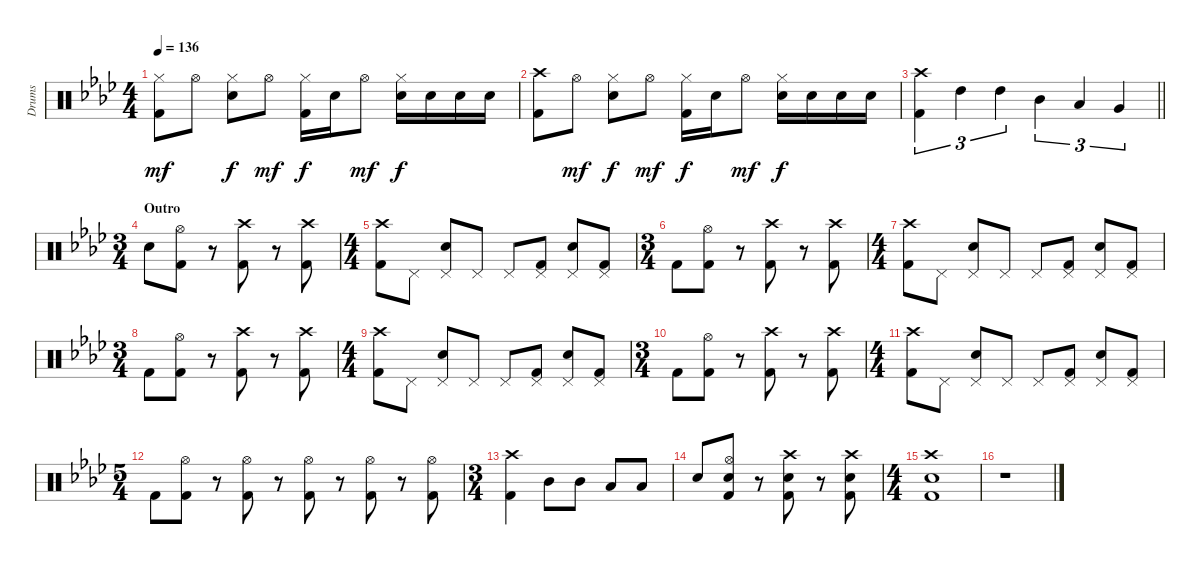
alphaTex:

\track ("Drums" "Drums") {instrument percussion}
\staff {score}
\articulation defaults
\ts (4 4)
\tempo 136
\clef neutral
\ks ab
("Hi-Hat (closed)" "Kick (hit) 2").8{dy mf} "Hi-Hat (open)".8 ("Hi-Hat (closed)" "Electric Snare (hit)").8{dy f} "Hi-Hat (open)".8{dy mf} ("Hi-Hat (closed)" "Kick (hit) 2").16{dy f} "Electric Snare (hit)".16 "Hi-Hat (open)".8{dy mf} ("Hi-Hat (closed)" "Electric Snare (hit)").16{dy f} "Electric Snare (hit)".16 "Electric Snare (hit)".16 "Electric Snare (hit)".16 |
("Crash high (hit)" "Kick (hit) 2").8 "Hi-Hat (open)".8{dy mf} ("Hi-Hat (closed)" "Electric Snare (hit)").8{dy f} "Hi-Hat (open)".8{dy mf} ("Hi-Hat (closed)" "Kick (hit) 2").16{dy f} "Electric Snare (hit)".16 "Hi-Hat (open)".8{dy mf} ("Hi-Hat (closed)" "Electric Snare (hit)").16{dy f} "Electric Snare (hit)".16 "Electric Snare (hit)".16 "Electric Snare (hit)".16 |
\barLineRight lightlight
("Crash high (hit)" "Kick (hit) 2").4{tu (3 2)} "High Tom (hit)".4{tu (3 2)} "High Tom (hit)".4{tu (3 2)} "Mid Tom (hit)".4{tu (3 2)} "Low Tom (hit)".4{tu (3 2)} "Very Low Tom (hit)".4{tu (3 2)} |
\ts (3 4)
\section ("" "Outro")
"Electric Snare (hit)".8 ("Hi-Hat (open)" "Kick (hit) 2").8 r.8 ("Crash high (hit)" "Kick (hit) 2").8 r.8 ("Crash high (hit)" "Kick (hit) 2").8 |
\ts (4 4)
("Crash high (hit)" "Kick (hit) 2").8 "Pedal Hi-Hat (hit)".8 ("Pedal Hi-Hat (hit)" "Electric Snare (hit)").8 "Pedal Hi-Hat (hit)".8 "Pedal Hi-Hat (hit)".8 ("Pedal Hi-Hat (hit)" "Kick (hit) 2").8 ("Pedal Hi-Hat (hit)" "Electric Snare (hit)").8 ("Pedal Hi-Hat (hit)" "Kick (hit) 2").8 |
\ts (3 4)
"Kick (hit) 2".8 ("Hi-Hat (open)" "Kick (hit) 2").8 r.8 ("Crash high (hit)" "Kick (hit) 2").8 r.8 ("Crash high (hit)" "Kick (hit) 2").8 |
\ts (4 4)
("Crash high (hit)" "Kick (hit) 2").8 "Pedal Hi-Hat (hit)".8 ("Pedal Hi-Hat (hit)" "Electric Snare (hit)").8 "Pedal Hi-Hat (hit)".8 "Pedal Hi-Hat (hit)".8 ("Pedal Hi-Hat (hit)" "Kick (hit) 2").8 ("Pedal Hi-Hat (hit)" "Electric Snare (hit)").8 ("Pedal Hi-Hat (hit)" "Kick (hit) 2").8 |
\ts (3 4)
"Kick (hit) 2".8 ("Hi-Hat (open)" "Kick (hit) 2").8 r.8 ("Crash high (hit)" "Kick (hit) 2").8 r.8 ("Crash high (hit)" "Kick (hit) 2").8 |
\ts (4 4)
("Crash high (hit)" "Kick (hit) 2").8 "Pedal Hi-Hat (hit)".8 ("Pedal Hi-Hat (hit)" "Electric Snare (hit)").8 "Pedal Hi-Hat (hit)".8 "Pedal Hi-Hat (hit)".8 ("Pedal Hi-Hat (hit)" "Kick (hit) 2").8 ("Pedal Hi-Hat (hit)" "Electric Snare (hit)").8 ("Pedal Hi-Hat (hit)" "Kick (hit) 2").8 |
\ts (3 4)
"Kick (hit) 2".8 ("Hi-Hat (open)" "Kick (hit) 2").8 r.8 ("Crash high (hit)" "Kick (hit) 2").8 r.8 ("Crash high (hit)" "Kick (hit) 2").8 |
\ts (4 4)
("Crash high (hit)" "Kick (hit) 2").8 "Pedal Hi-Hat (hit)".8 ("Pedal Hi-Hat (hit)" "Electric Snare (hit)").8 "Pedal Hi-Hat (hit)".8 "Pedal Hi-Hat (hit)".8 ("Pedal Hi-Hat (hit)" "Kick (hit) 2").8 ("Pedal Hi-Hat (hit)" "Electric Snare (hit)").8 ("Pedal Hi-Hat (hit)" "Kick (hit) 2").8 |
\ts (5 4)
"Kick (hit) 2".8 ("Hi-Hat (open)" "Kick (hit) 2").8 r.8 ("Hi-Hat (open)" "Kick (hit) 2").8 r.8 ("Hi-Hat (open)" "Kick (hit) 2").8 r.8 ("Hi-Hat (open)" "Kick (hit) 2").8 r.8 ("Hi-Hat (open)" "Kick (hit) 2").8 |
\ts (3 4)
("Crash high (hit)" "Kick (hit) 2").4 "Mid Tom (hit)".8 "Mid Tom (hit)".8 "Low Tom (hit)".8 "Low Tom (hit)".8 |
"Electric Snare (hit)".8 ("Hi-Hat (open)" "Electric Snare (hit)" "Kick (hit) 2").8 r.8 ("Crash high (hit)" "Electric Snare (hit)" "Kick (hit) 2").8 r.8 ("Crash high (hit)" "Electric Snare (hit)" "Kick (hit) 2").8 |
\ts (4 4)
("Crash high (hit)" "Electric Snare (hit)" "Kick (hit) 2").1 |
r.1
